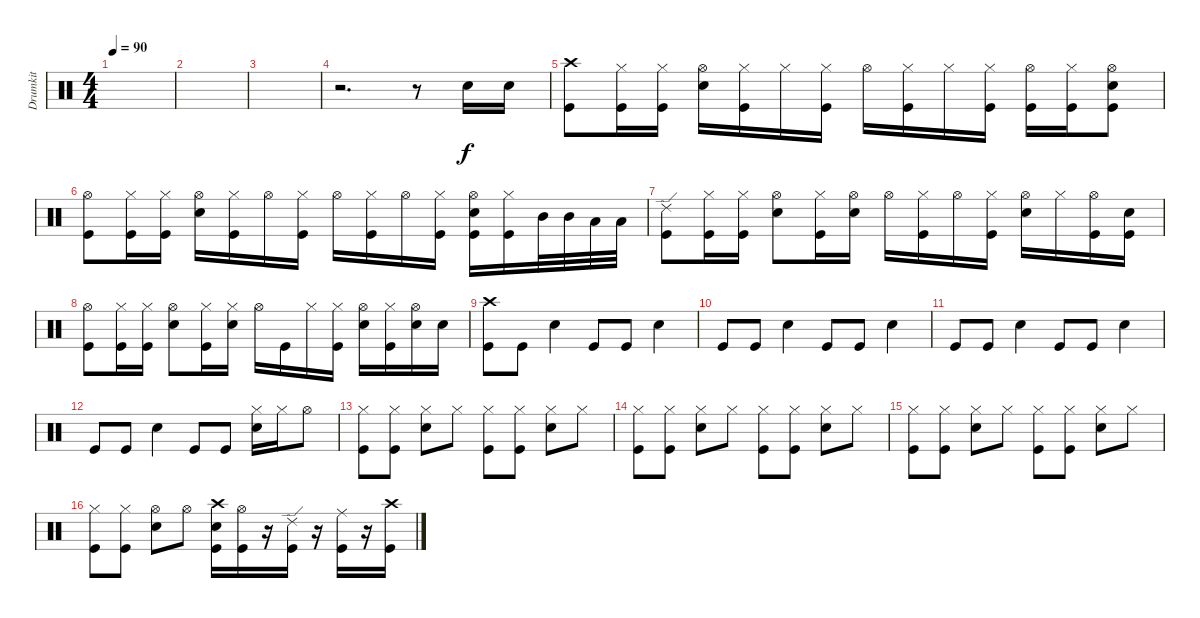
\track ("Drumkit" "Drumkit") {instrument percussion}
\staff {score}
\articulation defaults
\ts (4 4)
\tempo 90
\clef neutral
\ks c
|
|
|
r.2{d} r.8 "Snare (hit) 2".16 "Snare (hit) 2".16 |
("Kick (hit)" "Crash high (hit)").8 ("Kick (hit)" "Hi-Hat (closed)").16 ("Kick (hit)" "Hi-Hat (closed)").16 ("Snare (hit) 2" "Hi-Hat (open)").16 ("Kick (hit)" "Hi-Hat (closed)").16 "Hi-Hat (closed)".16 ("Kick (hit)" "Hi-Hat (closed)").16 "Hi-Hat (open)".16 ("Kick (hit)" "Hi-Hat (closed)").16 "Hi-Hat (closed)".16 ("Kick (hit)" "Hi-Hat (closed)").16 ("Kick (hit)" "Hi-Hat (open)").16 ("Kick (hit)" "Hi-Hat (closed)").16 ("Kick (hit)" "Snare (hit) 2" "Hi-Hat (open)").8 |
("Kick (hit)" "Hi-Hat (open)").8 ("Kick (hit)" "Hi-Hat (closed)").16 ("Kick (hit)" "Hi-Hat (closed)").16 ("Snare (hit) 2" "Hi-Hat (open)").16 ("Kick (hit)" "Hi-Hat (closed)").16 "Hi-Hat (open)".16 ("Kick (hit)" "Hi-Hat (closed)").16 "Hi-Hat (open)".16 ("Kick (hit)" "Hi-Hat (closed)").16 "Hi-Hat (open)".16 ("Kick (hit)" "Hi-Hat (closed)").16 ("Kick (hit)" "Snare (hit) 2" "Hi-Hat (open)").16 ("Kick (hit)" "Hi-Hat (closed)").16 "Mid Tom (hit)".32 "Mid Tom (hit)".32 "Low Tom (hit)".32 "Low Tom (hit)".32 |
("Kick (hit)" "Ride (edge) 2").8 ("Kick (hit)" "Hi-Hat (closed)").16 ("Kick (hit)" "Hi-Hat (closed)").16 ("Snare (hit) 2" "Hi-Hat (open)").8 ("Kick (hit)" "Hi-Hat (closed)").16 ("Snare (hit) 2" "Hi-Hat (open)").16 "Hi-Hat (open)".16 ("Kick (hit)" "Hi-Hat (closed)").16 "Hi-Hat (open)".16 ("Kick (hit)" "Hi-Hat (closed)").16 ("Snare (hit) 2" "Hi-Hat (open)").16 "Hi-Hat (closed)".16 ("Kick (hit)" "Hi-Hat (open)").16 ("Kick (hit)" "Snare (hit) 2").16 |
("Kick (hit)" "Hi-Hat (open)").8 ("Kick (hit)" "Hi-Hat (closed)").16 ("Kick (hit)" "Hi-Hat (closed)").16 ("Snare (hit) 2" "Hi-Hat (open)").8 ("Kick (hit)" "Hi-Hat (closed)").16 ("Snare (hit) 2" "Hi-Hat (closed)").16 "Hi-Hat (open)".16 "Kick (hit)".16 "Hi-Hat (closed)".16 ("Kick (hit)" "Hi-Hat (closed)").16 ("Snare (hit) 2" "Hi-Hat (open)").16 ("Kick (hit)" "Hi-Hat (closed)").16 ("Snare (hit) 2" "Hi-Hat (open)").16 "Snare (hit) 2".16 |
("Crash high (hit)" "Kick (hit)").8 "Kick (hit)".8 "Snare (hit) 2".4 "Kick (hit)".8 "Kick (hit)".8 "Snare (hit) 2".4 |
"Kick (hit)".8 "Kick (hit)".8 "Snare (hit) 2".4 "Kick (hit)".8 "Kick (hit)".8 "Snare (hit) 2".4 |
"Kick (hit)".8 "Kick (hit)".8 "Snare (hit) 2".4 "Kick (hit)".8 "Kick (hit)".8 "Snare (hit) 2".4 |
"Kick (hit)".8 "Kick (hit)".8 "Snare (hit) 2".4 "Kick (hit)".8 "Kick (hit)".8 ("Snare (hit) 2" "Hi-Hat (closed)").16 "Hi-Hat (closed)".16 "Hi-Hat (open)".8 |
("Kick (hit)" "Hi-Hat (closed)").8 ("Kick (hit)" "Hi-Hat (closed)").8 ("Snare (hit) 2" "Hi-Hat (closed)").8 "Hi-Hat (closed)".8 ("Kick (hit)" "Hi-Hat (closed)").8 ("Kick (hit)" "Hi-Hat (closed)").8 ("Snare (hit) 2" "Hi-Hat (closed)").8 "Hi-Hat (closed)".8 |
("Kick (hit)" "Hi-Hat (closed)").8 ("Kick (hit)" "Hi-Hat (closed)").8 ("Snare (hit) 2" "Hi-Hat (closed)").8 "Hi-Hat (closed)".8 ("Kick (hit)" "Hi-Hat (closed)").8 ("Kick (hit)" "Hi-Hat (closed)").8 ("Snare (hit) 2" "Hi-Hat (closed)").8 "Hi-Hat (closed)".8 |
("Kick (hit)" "Hi-Hat (closed)").8 ("Kick (hit)" "Hi-Hat (closed)").8 ("Snare (hit) 2" "Hi-Hat (closed)").8 "Hi-Hat (closed)".8 ("Kick (hit)" "Hi-Hat (closed)").8 ("Kick (hit)" "Hi-Hat (closed)").8 ("Snare (hit) 2" "Hi-Hat (closed)").8 "Hi-Hat (closed)".8 |
("Kick (hit)" "Hi-Hat (closed)").8 ("Kick (hit)" "Hi-Hat (closed)").8 ("Snare (hit) 2" "Hi-Hat (open)").8 "Hi-Hat (open)".8 ("Snare (hit) 2" "Kick (hit)" "Crash high (hit)").16 ("Kick (hit)" "Hi-Hat (open)").16 r.16 ("Kick (hit)" "Ride (edge) 2").16 r.16 ("Kick (hit)" "Ride (middle)").16 r.16 ("Kick (hit)" "Crash high (hit)").16
